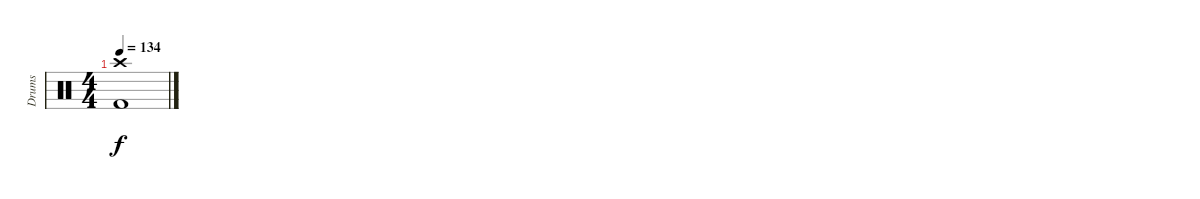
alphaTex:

\track ("Drums" "Drums") {instrument percussion}
\staff {score}
\articulation defaults
\ts (4 4)
\tempo 134
\clef neutral
\ks c
("Crash high (hit)" "Kick (hit) 2").1{dy f}
